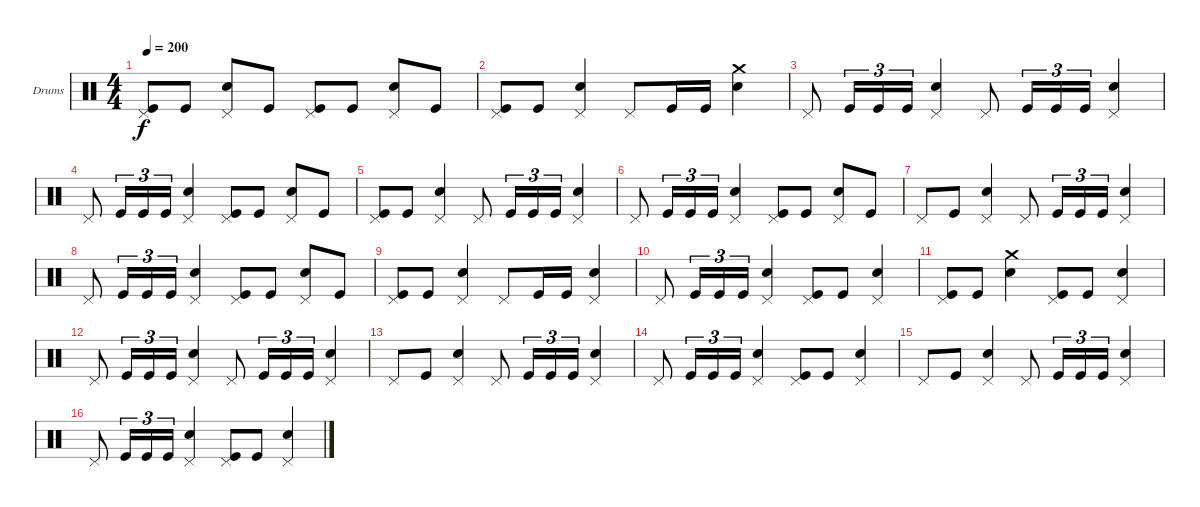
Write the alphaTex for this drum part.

\bracketExtendMode groupsimilarinstruments
\firstSystemTrackNameOrientation horizontal
\otherSystemsTrackNameOrientation horizontal
\track ("Drumkit" "Drums") {instrument percussion}
\staff {score}
\articulation defaults
\ts (4 4)
\tempo 200
\clef neutral
\ks c
("Pedal Hi-Hat (hit)" "Kick (hit)").8{dy f} "Kick (hit)".8 ("Pedal Hi-Hat (hit)" "Snare (hit) 2").8 "Kick (hit)".8 ("Pedal Hi-Hat (hit)" "Kick (hit)").8 "Kick (hit)".8 ("Pedal Hi-Hat (hit)" "Snare (hit) 2").8 "Kick (hit)".8 |
("Pedal Hi-Hat (hit)" "Kick (hit)").8 "Kick (hit)".8 ("Pedal Hi-Hat (hit)" "Snare (hit) 2").4 "Pedal Hi-Hat (hit)".8 "Kick (hit)".16 "Kick (hit)".16 ("Crash medium (hit)" "Snare (hit) 2").4 |
"Pedal Hi-Hat (hit)".8 "Kick (hit)".16{tu (3 2)} "Kick (hit)".16{tu (3 2)} "Kick (hit)".16{tu (3 2)} ("Pedal Hi-Hat (hit)" "Snare (hit) 2").4 "Pedal Hi-Hat (hit)".8 "Kick (hit)".16{tu (3 2)} "Kick (hit)".16{tu (3 2)} "Kick (hit)".16{tu (3 2)} ("Pedal Hi-Hat (hit)" "Snare (hit) 2").4 |
"Pedal Hi-Hat (hit)".8 "Kick (hit)".16{tu (3 2)} "Kick (hit)".16{tu (3 2)} "Kick (hit)".16{tu (3 2)} ("Pedal Hi-Hat (hit)" "Snare (hit) 2").4 ("Pedal Hi-Hat (hit)" "Kick (hit)").8 "Kick (hit)".8 ("Pedal Hi-Hat (hit)" "Snare (hit) 2").8 "Kick (hit)".8 |
("Pedal Hi-Hat (hit)" "Kick (hit)").8 "Kick (hit)".8 ("Pedal Hi-Hat (hit)" "Snare (hit) 2").4 "Pedal Hi-Hat (hit)".8 "Kick (hit)".16{tu (3 2)} "Kick (hit)".16{tu (3 2)} "Kick (hit)".16{tu (3 2)} ("Pedal Hi-Hat (hit)" "Snare (hit) 2").4 |
"Pedal Hi-Hat (hit)".8 "Kick (hit)".16{tu (3 2)} "Kick (hit)".16{tu (3 2)} "Kick (hit)".16{tu (3 2)} ("Pedal Hi-Hat (hit)" "Snare (hit) 2").4 ("Pedal Hi-Hat (hit)" "Kick (hit)").8 "Kick (hit)".8 ("Pedal Hi-Hat (hit)" "Snare (hit) 2").8 "Kick (hit)".8 |
"Pedal Hi-Hat (hit)".8 "Kick (hit)".8 ("Pedal Hi-Hat (hit)" "Snare (hit) 2").4 "Pedal Hi-Hat (hit)".8 "Kick (hit)".16{tu (3 2)} "Kick (hit)".16{tu (3 2)} "Kick (hit)".16{tu (3 2)} ("Pedal Hi-Hat (hit)" "Snare (hit) 2").4 |
"Pedal Hi-Hat (hit)".8 "Kick (hit)".16{tu (3 2)} "Kick (hit)".16{tu (3 2)} "Kick (hit)".16{tu (3 2)} ("Pedal Hi-Hat (hit)" "Snare (hit) 2").4 ("Pedal Hi-Hat (hit)" "Kick (hit)").8 "Kick (hit)".8 ("Pedal Hi-Hat (hit)" "Snare (hit) 2").8 "Kick (hit)".8 |
("Pedal Hi-Hat (hit)" "Kick (hit)").8 "Kick (hit)".8 ("Pedal Hi-Hat (hit)" "Snare (hit) 2").4 "Pedal Hi-Hat (hit)".8 "Kick (hit)".16 "Kick (hit)".16 ("Pedal Hi-Hat (hit)" "Snare (hit) 2").4 |
"Pedal Hi-Hat (hit)".8 "Kick (hit)".16{tu (3 2)} "Kick (hit)".16{tu (3 2)} "Kick (hit)".16{tu (3 2)} ("Pedal Hi-Hat (hit)" "Snare (hit) 2").4 ("Pedal Hi-Hat (hit)" "Kick (hit)").8 "Kick (hit)".8 ("Pedal Hi-Hat (hit)" "Snare (hit) 2").4 |
("Pedal Hi-Hat (hit)" "Kick (hit)").8 "Kick (hit)".8 ("Crash medium (hit)" "Snare (hit) 2").4 ("Pedal Hi-Hat (hit)" "Kick (hit)").8 "Kick (hit)".8 ("Pedal Hi-Hat (hit)" "Snare (hit) 2").4 |
"Pedal Hi-Hat (hit)".8 "Kick (hit)".16{tu (3 2)} "Kick (hit)".16{tu (3 2)} "Kick (hit)".16{tu (3 2)} ("Pedal Hi-Hat (hit)" "Snare (hit) 2").4 "Pedal Hi-Hat (hit)".8 "Kick (hit)".16{tu (3 2)} "Kick (hit)".16{tu (3 2)} "Kick (hit)".16{tu (3 2)} ("Pedal Hi-Hat (hit)" "Snare (hit) 2").4 |
"Pedal Hi-Hat (hit)".8 "Kick (hit)".8 ("Pedal Hi-Hat (hit)" "Snare (hit) 2").4 "Pedal Hi-Hat (hit)".8 "Kick (hit)".16{tu (3 2)} "Kick (hit)".16{tu (3 2)} "Kick (hit)".16{tu (3 2)} ("Pedal Hi-Hat (hit)" "Snare (hit) 2").4 |
"Pedal Hi-Hat (hit)".8 "Kick (hit)".16{tu (3 2)} "Kick (hit)".16{tu (3 2)} "Kick (hit)".16{tu (3 2)} ("Pedal Hi-Hat (hit)" "Snare (hit) 2").4 ("Pedal Hi-Hat (hit)" "Kick (hit)").8 "Kick (hit)".8 ("Pedal Hi-Hat (hit)" "Snare (hit) 2").4 |
"Pedal Hi-Hat (hit)".8 "Kick (hit)".8 ("Pedal Hi-Hat (hit)" "Snare (hit) 2").4 "Pedal Hi-Hat (hit)".8 "Kick (hit)".16{tu (3 2)} "Kick (hit)".16{tu (3 2)} "Kick (hit)".16{tu (3 2)} ("Pedal Hi-Hat (hit)" "Snare (hit) 2").4 |
"Pedal Hi-Hat (hit)".8 "Kick (hit)".16{tu (3 2)} "Kick (hit)".16{tu (3 2)} "Kick (hit)".16{tu (3 2)} ("Pedal Hi-Hat (hit)" "Snare (hit) 2").4 ("Pedal Hi-Hat (hit)" "Kick (hit)").8 "Kick (hit)".8 ("Pedal Hi-Hat (hit)" "Snare (hit) 2").4
